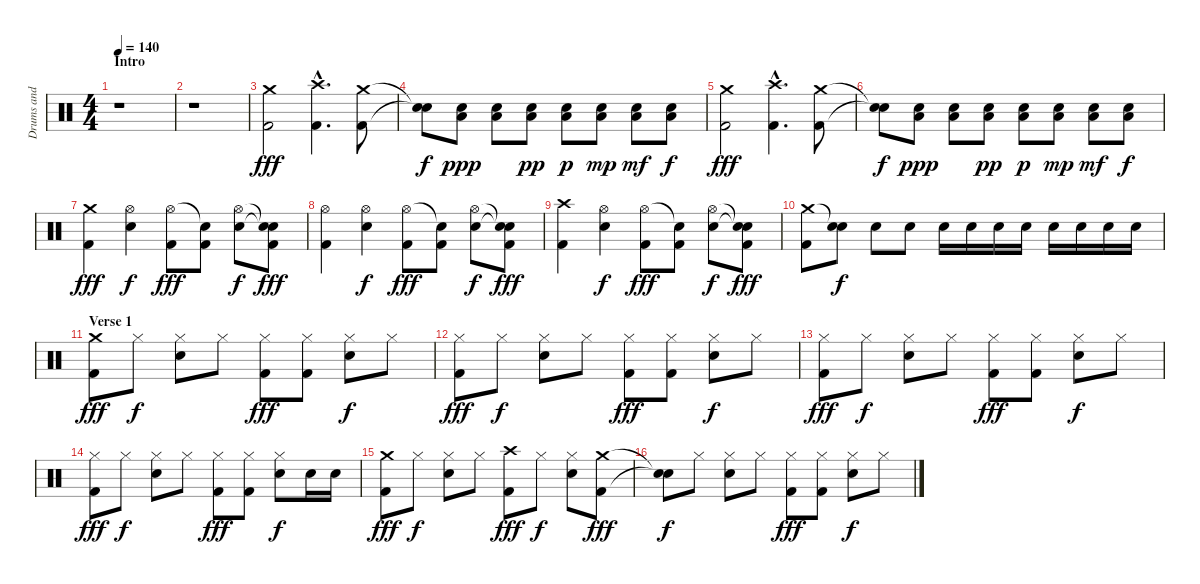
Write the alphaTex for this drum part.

\track ("Drums and Percussion" "Drums and ") {instrument percussion}
\staff {score}
\articulation defaults
\ts (4 4)
\section ("" "Intro")
\tempo 140
\clef neutral
\ks c
r.1{dy fff} |
r.1 |
("Crash medium (hit)" "Kick (hit) 2").2 ("Crash high (hit)"{hac} "Kick (hit) 2"{hac}).4{d} ("Crash medium (hit)" "Kick (hit) 2").8 |
("Snare (hit)"{t} "Snare (hit)"{t}).8{dy f} ("Snare (hit) 2" "Low Floor Tom (hit)").8{dy ppp} ("Snare (hit) 2" "Low Floor Tom (hit)").8 ("Snare (hit) 2" "Low Floor Tom (hit)").8{dy pp} ("Snare (hit) 2" "Low Floor Tom (hit)").8{dy p} ("Snare (hit) 2" "Low Floor Tom (hit)").8{dy mp} ("Snare (hit) 2" "Low Floor Tom (hit)").8{dy mf} ("Snare (hit) 2" "Low Floor Tom (hit)").8{dy f} |
("Crash medium (hit)" "Kick (hit) 2").2{dy fff} ("Crash high (hit)"{hac} "Kick (hit) 2"{hac}).4{d} ("Crash medium (hit)" "Kick (hit) 2").8 |
("Snare (hit)"{t} "Snare (hit)"{t}).8{dy f} ("Snare (hit) 2" "Low Floor Tom (hit)").8{dy ppp} ("Snare (hit) 2" "Low Floor Tom (hit)").8 ("Snare (hit) 2" "Low Floor Tom (hit)").8{dy pp} ("Snare (hit) 2" "Low Floor Tom (hit)").8{dy p} ("Snare (hit) 2" "Low Floor Tom (hit)").8{dy mp} ("Snare (hit) 2" "Low Floor Tom (hit)").8{dy mf} ("Snare (hit) 2" "Low Floor Tom (hit)").8{dy f} |
("Crash medium (hit)" "Kick (hit) 2").4{dy fff} ("Hi-Hat (open)" "Snare (hit) 2").4{dy f} ("Hi-Hat (open)" "Kick (hit) 2").8{dy fff} ("Snare (hit)"{t} "Kick (hit) 2").8 ("Hi-Hat (open)" "Snare (hit) 2").8{dy f} ("Snare (hit)"{t} "Snare (hit)"{t} "Kick (hit) 2").8{dy fff} |
("Hi-Hat (open)" "Kick (hit) 2").4 ("Hi-Hat (open)" "Snare (hit) 2").4{dy f} ("Hi-Hat (open)" "Kick (hit) 2").8{dy fff} ("Snare (hit)"{t} "Kick (hit) 2").8 ("Hi-Hat (open)" "Snare (hit) 2").8{dy f} ("Snare (hit)"{t} "Snare (hit)"{t} "Kick (hit) 2").8{dy fff} |
("Crash high (hit)" "Kick (hit) 2").4 ("Hi-Hat (open)" "Snare (hit) 2").4{dy f} ("Hi-Hat (open)" "Kick (hit) 2").8{dy fff} ("Snare (hit)"{t} "Kick (hit) 2").8 ("Hi-Hat (open)" "Snare (hit) 2").8{dy f} ("Snare (hit)"{t} "Snare (hit)"{t} "Kick (hit) 2").8{dy fff} |
("Crash medium (hit)" "Kick (hit) 2").8 ("Snare (hit)"{t} "Snare (hit) 2").8{dy f} "Snare (hit) 2".8 "Snare (hit) 2".8 "Snare (hit) 2".16 "Snare (hit) 2".16 "Snare (hit) 2".16 "Snare (hit) 2".16 "Snare (hit) 2".16 "Snare (hit) 2".16 "Snare (hit) 2".16 "Snare (hit) 2".16 |
\section ("" "Verse 1")
("Crash medium (hit)" "Kick (hit) 2").8{dy fff} "Hi-Hat (closed)".8{dy f} ("Hi-Hat (closed)" "Snare (hit) 2").8 "Hi-Hat (closed)".8 ("Hi-Hat (closed)" "Kick (hit) 2").8{dy fff} ("Hi-Hat (closed)" "Kick (hit) 2").8 ("Hi-Hat (closed)" "Snare (hit) 2").8{dy f} "Hi-Hat (closed)".8 |
("Hi-Hat (closed)" "Kick (hit) 2").8{dy fff} "Hi-Hat (closed)".8{dy f} ("Hi-Hat (closed)" "Snare (hit) 2").8 "Hi-Hat (closed)".8 ("Hi-Hat (closed)" "Kick (hit) 2").8{dy fff} ("Hi-Hat (closed)" "Kick (hit) 2").8 ("Hi-Hat (closed)" "Snare (hit) 2").8{dy f} "Hi-Hat (closed)".8 |
("Hi-Hat (closed)" "Kick (hit) 2").8{dy fff} "Hi-Hat (closed)".8{dy f} ("Hi-Hat (closed)" "Snare (hit) 2").8 "Hi-Hat (closed)".8 ("Hi-Hat (closed)" "Kick (hit) 2").8{dy fff} ("Hi-Hat (closed)" "Kick (hit) 2").8 ("Hi-Hat (closed)" "Snare (hit) 2").8{dy f} "Hi-Hat (closed)".8 |
("Hi-Hat (closed)" "Kick (hit) 2").8{dy fff} "Hi-Hat (closed)".8{dy f} ("Hi-Hat (closed)" "Snare (hit) 2").8 "Hi-Hat (closed)".8 ("Hi-Hat (closed)" "Kick (hit) 2").8{dy fff} ("Hi-Hat (closed)" "Kick (hit) 2").8 ("Hi-Hat (closed)" "Snare (hit) 2").8{dy f} "Snare (hit) 2".16 "Snare (hit) 2".16 |
("Crash medium (hit)" "Kick (hit) 2").8{dy fff} "Hi-Hat (closed)".8{dy f} ("Hi-Hat (closed)" "Snare (hit) 2").8 "Hi-Hat (closed)".8 ("Crash high (hit)" "Kick (hit) 2").8{dy fff} "Hi-Hat (closed)".8{dy f} ("Hi-Hat (closed)" "Snare (hit) 2").8 ("Crash medium (hit)" "Kick (hit) 2").8{dy fff} |
("Snare (hit)"{t} "Snare (hit)"{t}).8{dy f} "Hi-Hat (closed)".8 ("Hi-Hat (closed)" "Snare (hit) 2").8 "Hi-Hat (closed)".8 ("Hi-Hat (closed)" "Kick (hit) 2").8{dy fff} ("Hi-Hat (closed)" "Kick (hit) 2").8 ("Hi-Hat (closed)" "Snare (hit) 2").8{dy f} "Hi-Hat (closed)".8
